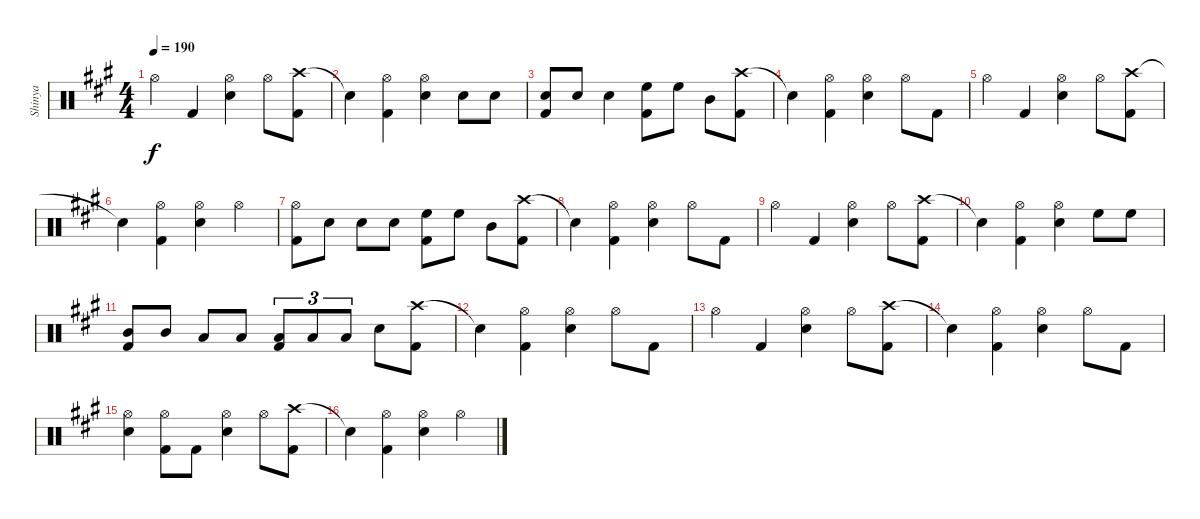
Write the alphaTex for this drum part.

\track ("Shinya" "Shinya") {instrument percussion}
\staff {score}
\articulation defaults
\ts (4 4)
\tempo 190
\clef neutral
\ks a "Hi-Hat (open)".4{dy f} "Kick (hit) 2".4
("Hi-Hat (open)" "Snare (hit) 2").4 "Hi-Hat (open)".8 ("Crash high (hit)" "Kick (hit) 2").8 |
"Snare (hit)"{t}.4 ("Hi-Hat (open)" "Kick (hit) 2").4 ("Hi-Hat (open)" "Snare (hit) 2").4 "Snare (hit) 2".8 "Snare (hit) 2".8 |
("Snare (hit) 2" "Kick (hit) 2").8 "Snare (hit) 2".8 "Snare (hit) 2".4 ("High Floor Tom (hit)" "Kick (hit) 2").8 "High Floor Tom (hit)".8 "Mid Tom (hit)".8 ("Crash high (hit)" "Kick (hit) 2").8 |
"Snare (hit)"{t}.4 ("Hi-Hat (open)" "Kick (hit) 2").4 ("Hi-Hat (open)" "Snare (hit) 2").4 "Hi-Hat (open)".8 "Kick (hit) 2".8 |
"Hi-Hat (open)".4 "Kick (hit) 2".4 ("Hi-Hat (open)" "Snare (hit) 2").4 "Hi-Hat (open)".8 ("Crash high (hit)" "Kick (hit) 2").8 |
"Snare (hit)"{t}.4 ("Hi-Hat (open)" "Kick (hit) 2").4 ("Hi-Hat (open)" "Snare (hit) 2").4 "Hi-Hat (open)".4 |
("Hi-Hat (open)" "Kick (hit) 2").8 "Snare (hit) 2".8 "Snare (hit) 2".8 "Snare (hit) 2".8 ("Kick (hit) 2" "High Floor Tom (hit)").8 "High Floor Tom (hit)".8 "Mid Tom (hit)".8 ("Crash high (hit)" "Kick (hit) 2").8 |
"Snare (hit)"{t}.4 ("Hi-Hat (open)" "Kick (hit) 2").4 ("Hi-Hat (open)" "Snare (hit) 2").4 "Hi-Hat (open)".8 "Kick (hit) 2".8 |
"Hi-Hat (open)".4 "Kick (hit) 2".4 ("Hi-Hat (open)" "Snare (hit) 2").4 "Hi-Hat (open)".8 ("Crash high (hit)" "Kick (hit) 2").8 |
"Snare (hit)"{t}.4 ("Hi-Hat (open)" "Kick (hit) 2").4 ("Hi-Hat (open)" "Snare (hit) 2").4 "High Floor Tom (hit)".8 "High Floor Tom (hit)".8 |
("Mid Tom (hit)" "Kick (hit) 2").8 "Mid Tom (hit)".8 "Low Tom (hit)".8 "Low Tom (hit)".8 ("Low Floor Tom (hit)" "Kick (hit) 2").8{tu (3 2)} "Low Floor Tom (hit)".8{tu (3 2)} "Low Floor Tom (hit)".8{tu (3 2)} "Snare (hit) 2".8 ("Crash high (hit)" "Kick (hit) 2").8 |
"Snare (hit)"{t}.4 ("Hi-Hat (open)" "Kick (hit) 2").4 ("Hi-Hat (open)" "Snare (hit) 2").4 "Hi-Hat (open)".8 "Kick (hit) 2".8 |
"Hi-Hat (open)".4 "Kick (hit) 2".4 ("Hi-Hat (open)" "Snare (hit) 2").4 "Hi-Hat (open)".8 ("Crash high (hit)" "Kick (hit) 2").8 |
"Snare (hit)"{t}.4 ("Hi-Hat (open)" "Kick (hit) 2").4 ("Hi-Hat (open)" "Snare (hit) 2").4 "Hi-Hat (open)".8 "Kick (hit) 2".8 |
("Hi-Hat (open)" "Snare (hit) 2").4 ("Hi-Hat (open)" "Kick (hit) 2").8 "Kick (hit) 2".8 ("Hi-Hat (open)" "Snare (hit) 2").4 "Hi-Hat (open)".8 ("Crash high (hit)" "Kick (hit) 2").8 |
"Snare (hit)"{t}.4 ("Hi-Hat (open)" "Kick (hit) 2").4 ("Hi-Hat (open)" "Snare (hit) 2").4 "Hi-Hat (open)".4
